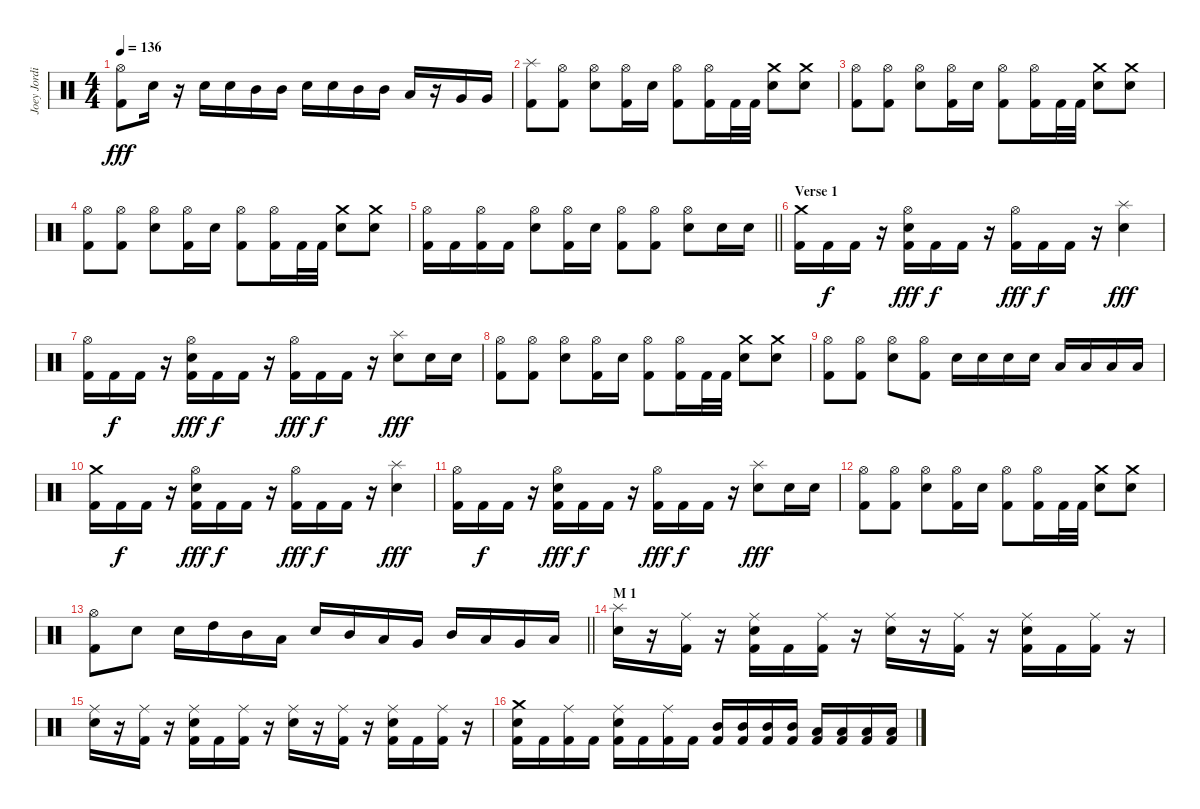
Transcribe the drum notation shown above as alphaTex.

\track ("Joey Jordison" "Joey Jordi") {instrument percussion}
\staff {score}
\articulation defaults
\ts (4 4)
\tempo 136
\clef neutral
\ks c
("Hi-Hat (open)" "Kick (hit) 2").8{dy fff} "Electric Snare (hit)".16 r.16 "Electric Snare (hit)".16 "Electric Snare (hit)".16 "Mid Tom (hit)".16 "Mid Tom (hit)".16 "Electric Snare (hit)".16 "Electric Snare (hit)".16 "Mid Tom (hit)".16 "Mid Tom (hit)".16 "Low Tom (hit)".16 r.16 "Very Low Tom (hit)".16 "Very Low Tom (hit)".16 |
("Splash (hit)" "Kick (hit) 2").8 ("Hi-Hat (open)" "Kick (hit) 2").8 ("Hi-Hat (open)" "Electric Snare (hit)").8 ("Hi-Hat (open)" "Kick (hit) 2").16 "Electric Snare (hit)".16 ("Hi-Hat (open)" "Kick (hit) 2").8 ("Hi-Hat (open)" "Kick (hit) 2").16 "Kick (hit) 2".32 "Kick (hit) 2".32 ("Crash medium (hit)" "Electric Snare (hit)").8 ("Crash medium (hit)" "Electric Snare (hit)").8 |
("Hi-Hat (open)" "Kick (hit) 2").8 ("Hi-Hat (open)" "Kick (hit) 2").8 ("Hi-Hat (open)" "Electric Snare (hit)").8 ("Hi-Hat (open)" "Kick (hit) 2").16 "Electric Snare (hit)".16 ("Hi-Hat (open)" "Kick (hit) 2").8 ("Hi-Hat (open)" "Kick (hit) 2").16 "Kick (hit) 2".32 "Kick (hit) 2".32 ("Crash medium (hit)" "Electric Snare (hit)").8 ("Crash medium (hit)" "Electric Snare (hit)").8 |
("Hi-Hat (open)" "Kick (hit) 2").8 ("Hi-Hat (open)" "Kick (hit) 2").8 ("Hi-Hat (open)" "Electric Snare (hit)").8 ("Hi-Hat (open)" "Kick (hit) 2").16 "Electric Snare (hit)".16 ("Hi-Hat (open)" "Kick (hit) 2").8 ("Hi-Hat (open)" "Kick (hit) 2").16 "Kick (hit) 2".32 "Kick (hit) 2".32 ("Crash medium (hit)" "Electric Snare (hit)").8 ("Crash medium (hit)" "Electric Snare (hit)").8 |
\barLineRight lightlight
("Hi-Hat (open)" "Kick (hit) 2").16 "Kick (hit) 2".16 ("Hi-Hat (open)" "Kick (hit) 2").16 "Kick (hit) 2".16 ("Hi-Hat (open)" "Electric Snare (hit)").8 ("Hi-Hat (open)" "Kick (hit) 2").16 "Electric Snare (hit)".16 ("Hi-Hat (open)" "Kick (hit) 2").8 ("Hi-Hat (open)" "Kick (hit) 2").8 ("Hi-Hat (open)" "Electric Snare (hit)").8 "Electric Snare (hit)".16 "Electric Snare (hit)".16 |
\section ("" "Verse 1")
("Crash medium (hit)" "Kick (hit) 2").16 "Kick (hit) 2".16{dy f} "Kick (hit) 2".16 r.16 ("Hi-Hat (open)" "Electric Snare (hit)" "Kick (hit) 2").16{dy fff} "Kick (hit) 2".16{dy f} "Kick (hit) 2".16 r.16 ("Hi-Hat (open)" "Kick (hit) 2").16{dy fff} "Kick (hit) 2".16{dy f} "Kick (hit) 2".16 r.16 ("Splash (hit)" "Electric Snare (hit)").4{dy fff} |
("Hi-Hat (open)" "Kick (hit) 2").16 "Kick (hit) 2".16{dy f} "Kick (hit) 2".16 r.16 ("Hi-Hat (open)" "Electric Snare (hit)" "Kick (hit) 2").16{dy fff} "Kick (hit) 2".16{dy f} "Kick (hit) 2".16 r.16 ("Hi-Hat (open)" "Kick (hit) 2").16{dy fff} "Kick (hit) 2".16{dy f} "Kick (hit) 2".16 r.16 ("Splash (hit)" "Electric Snare (hit)").8{dy fff} "Electric Snare (hit)".16 "Electric Snare (hit)".16 |
("Hi-Hat (open)" "Kick (hit) 2").8 ("Hi-Hat (open)" "Kick (hit) 2").8 ("Hi-Hat (open)" "Electric Snare (hit)").8 ("Hi-Hat (open)" "Kick (hit) 2").16 "Electric Snare (hit)".16 ("Hi-Hat (open)" "Kick (hit) 2").8 ("Hi-Hat (open)" "Kick (hit) 2").16 "Kick (hit) 2".32 "Kick (hit) 2".32 ("Crash medium (hit)" "Electric Snare (hit)").8 ("Crash medium (hit)" "Electric Snare (hit)").8 |
("Hi-Hat (open)" "Kick (hit) 2").8 ("Hi-Hat (open)" "Kick (hit) 2").8 ("Hi-Hat (open)" "Electric Snare (hit)").8 ("Hi-Hat (open)" "Kick (hit) 2").8 "Electric Snare (hit)".16 "Electric Snare (hit)".16 "Electric Snare (hit)".16 "Electric Snare (hit)".16 "Low Tom (hit)".16 "Low Tom (hit)".16 "Low Tom (hit)".16 "Low Tom (hit)".16 |
("Crash medium (hit)" "Kick (hit) 2").16 "Kick (hit) 2".16{dy f} "Kick (hit) 2".16 r.16 ("Hi-Hat (open)" "Electric Snare (hit)" "Kick (hit) 2").16{dy fff} "Kick (hit) 2".16{dy f} "Kick (hit) 2".16 r.16 ("Hi-Hat (open)" "Kick (hit) 2").16{dy fff} "Kick (hit) 2".16{dy f} "Kick (hit) 2".16 r.16 ("Splash (hit)" "Electric Snare (hit)").4{dy fff} |
("Hi-Hat (open)" "Kick (hit) 2").16 "Kick (hit) 2".16{dy f} "Kick (hit) 2".16 r.16 ("Hi-Hat (open)" "Electric Snare (hit)" "Kick (hit) 2").16{dy fff} "Kick (hit) 2".16{dy f} "Kick (hit) 2".16 r.16 ("Hi-Hat (open)" "Kick (hit) 2").16{dy fff} "Kick (hit) 2".16{dy f} "Kick (hit) 2".16 r.16 ("Splash (hit)" "Electric Snare (hit)").8{dy fff} "Electric Snare (hit)".16 "Electric Snare (hit)".16 |
("Hi-Hat (open)" "Kick (hit) 2").8 ("Hi-Hat (open)" "Kick (hit) 2").8 ("Hi-Hat (open)" "Electric Snare (hit)").8 ("Hi-Hat (open)" "Kick (hit) 2").16 "Electric Snare (hit)".16 ("Hi-Hat (open)" "Kick (hit) 2").8 ("Hi-Hat (open)" "Kick (hit) 2").16 "Kick (hit) 2".32 "Kick (hit) 2".32 ("Crash medium (hit)" "Electric Snare (hit)").8 ("Crash medium (hit)" "Electric Snare (hit)").8 |
\barLineRight lightlight
("Hi-Hat (open)" "Kick (hit) 2").8 "Electric Snare (hit)".8 "Electric Snare (hit)".16 "High Tom (hit)".16 "Mid Tom (hit)".16 "Low Tom (hit)".16 "Electric Snare (hit)".16 "Mid Tom (hit)".16 "Low Tom (hit)".16 "Very Low Tom (hit)".16 "Mid Tom (hit)".16 "Low Tom (hit)".16 "Very Low Tom (hit)".16 "Low Floor Tom (hit)".16 |
\section ("" "M 1")
("Splash (hit)" "Electric Snare (hit)").16 r.16 ("Ride (middle)" "Kick (hit) 2").16 r.16 ("Ride (middle)" "Electric Snare (hit)" "Kick (hit) 2").16 "Kick (hit) 2".16 ("Ride (middle)" "Kick (hit) 2").16 r.16 ("Ride (middle)" "Electric Snare (hit)").16 r.16 ("Ride (middle)" "Kick (hit) 2").16 r.16 ("Ride (middle)" "Electric Snare (hit)" "Kick (hit) 2").16 "Kick (hit) 2".16 ("Ride (middle)" "Kick (hit) 2").16 r.16 |
("Ride (middle)" "Electric Snare (hit)").16 r.16 ("Ride (middle)" "Kick (hit) 2").16 r.16 ("Ride (middle)" "Electric Snare (hit)" "Kick (hit) 2").16 "Kick (hit) 2".16 ("Ride (middle)" "Kick (hit) 2").16 r.16 ("Ride (middle)" "Electric Snare (hit)").16 r.16 ("Ride (middle)" "Kick (hit) 2").16 r.16 ("Ride (middle)" "Electric Snare (hit)" "Kick (hit) 2").16 "Kick (hit) 2".16 ("Ride (middle)" "Kick (hit) 2").16 r.16 |
("Crash medium (hit)" "Electric Snare (hit)" "Kick (hit) 2").16 "Kick (hit) 2".16 ("Ride (middle)" "Kick (hit) 2").16 "Kick (hit) 2".16 ("Ride (middle)" "Electric Snare (hit)" "Kick (hit) 2").16 "Kick (hit) 2".16 ("Ride (middle)" "Kick (hit) 2").16 "Kick (hit) 2".16 ("Mid Tom (hit)" "Kick (hit) 2").16 ("Mid Tom (hit)" "Kick (hit) 2").16 ("Mid Tom (hit)" "Kick (hit) 2").16 ("Mid Tom (hit)" "Kick (hit) 2").16 ("Low Tom (hit)" "Kick (hit) 2").16 ("Low Tom (hit)" "Kick (hit) 2").16 ("Low Tom (hit)" "Kick (hit) 2").16 ("Low Tom (hit)" "Kick (hit) 2").16
